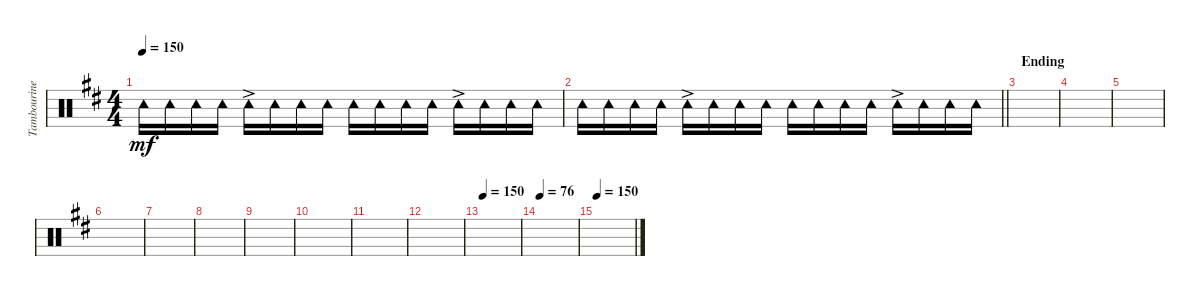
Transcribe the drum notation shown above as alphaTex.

\track ("Tambourine" "Tambourine") {instrument percussion}
\staff {score}
\articulation defaults
\ts (4 4)
\tempo 150
\clef neutral
\ks d "Tambourine (hit)".16{dy mf} "Tambourine (hit)".16 "Tambourine (hit)".16 "Tambourine (hit)".16 "Tambourine (hit)"{ac}.16 "Tambourine (hit)".16 "Tambourine (hit)".16 "Tambourine (hit)".16 "Tambourine (hit)".16 "Tambourine (hit)".16 "Tambourine (hit)".16 "Tambourine (hit)".16 "Tambourine (hit)"{ac}.16 "Tambourine (hit)".16 "Tambourine (hit)".16 "Tambourine (hit)".16
|
\barLineRight lightlight "Tambourine (hit)".16 "Tambourine (hit)".16 "Tambourine (hit)".16 "Tambourine (hit)".16 "Tambourine (hit)"{ac}.16 "Tambourine (hit)".16 "Tambourine (hit)".16 "Tambourine (hit)".16 "Tambourine (hit)".16 "Tambourine (hit)".16 "Tambourine (hit)".16 "Tambourine (hit)".16 "Tambourine (hit)"{ac}.16 "Tambourine (hit)".16 "Tambourine (hit)".16 "Tambourine (hit)".16
|
\section ("" "Ending")
|
|
|
|
|
|
|
|
|
|
\tempo 150
|
\tempo 76
|
\tempo 150
